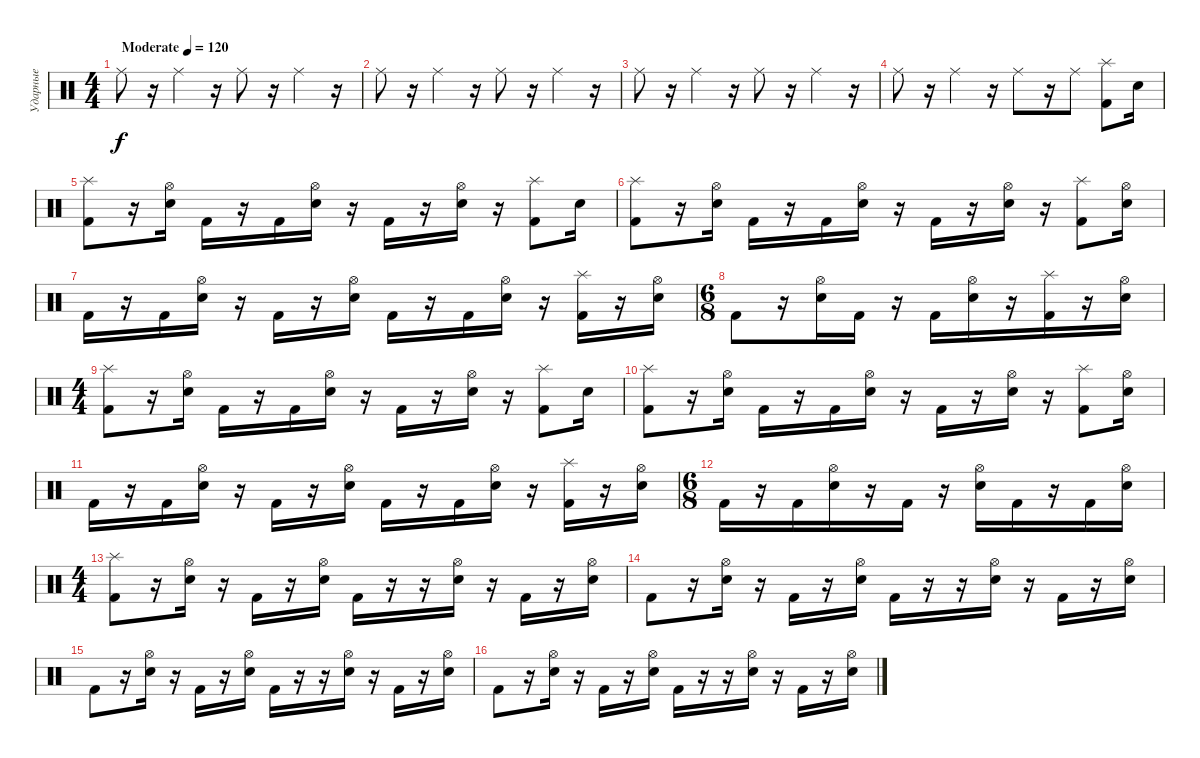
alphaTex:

\track ("Ударные" "Ударные") {instrument percussion}
\staff {score}
\articulation defaults
\ts (4 4)
\tempo (120 "Moderate")
\clef neutral
\ks c "Ride (middle)".8{dy f}
r.16 "Ride (middle)".4 r.16 "Ride (middle)".8 r.16 "Ride (middle)".4 r.16 |
"Ride (middle)".8 r.16 "Ride (middle)".4 r.16 "Ride (middle)".8 r.16 "Ride (middle)".4 r.16 |
"Ride (middle)".8 r.16 "Ride (middle)".4 r.16 "Ride (middle)".8 r.16 "Ride (middle)".4 r.16 |
"Ride (middle)".8 r.16 "Ride (middle)".4 r.16 "Ride (middle)".8 r.16 "Ride (middle)".8 ("Splash (hit)" "Kick (hit) 2").8 "Snare (hit) 2".16 |
("Splash (hit)" "Kick (hit) 2").8 r.16 ("Hi-Hat (open)" "Electric Snare (hit)").16 "Kick (hit) 2".16 r.16 "Kick (hit) 2".16 ("Hi-Hat (open)" "Electric Snare (hit)").16 r.16 "Kick (hit) 2".16 r.16 ("Hi-Hat (open)" "Electric Snare (hit)").16 r.16 ("Splash (hit)" "Kick (hit) 2").8 "Snare (hit) 2".16 |
("Splash (hit)" "Kick (hit) 2").8 r.16 ("Hi-Hat (open)" "Electric Snare (hit)").16 "Kick (hit) 2".16 r.16 "Kick (hit) 2".16 ("Hi-Hat (open)" "Electric Snare (hit)").16 r.16 "Kick (hit) 2".16 r.16 ("Hi-Hat (open)" "Electric Snare (hit)").16 r.16 ("Splash (hit)" "Kick (hit) 2").8 ("Hi-Hat (open)" "Electric Snare (hit)").16 |
"Kick (hit) 2".16 r.16 "Kick (hit) 2".16 ("Hi-Hat (open)" "Electric Snare (hit)").16 r.16 "Kick (hit) 2".16 r.16 ("Hi-Hat (open)" "Electric Snare (hit)").16 "Kick (hit) 2".16 r.16 "Kick (hit) 2".16 ("Hi-Hat (open)" "Electric Snare (hit)").16 r.16 ("Splash (hit)" "Kick (hit) 2").16 r.16 ("Hi-Hat (open)" "Electric Snare (hit)").16 |
\ts (6 8)
"Kick (hit) 2".8 r.16 ("Hi-Hat (open)" "Electric Snare (hit)").16 "Kick (hit) 2".16 r.16 "Kick (hit) 2".16 ("Hi-Hat (open)" "Electric Snare (hit)").16 r.16 ("Splash (hit)" "Kick (hit) 2").16 r.16 ("Hi-Hat (open)" "Electric Snare (hit)").16 |
\ts (4 4)
("Splash (hit)" "Kick (hit) 2").8 r.16 ("Hi-Hat (open)" "Electric Snare (hit)").16 "Kick (hit) 2".16 r.16 "Kick (hit) 2".16 ("Hi-Hat (open)" "Electric Snare (hit)").16 r.16 "Kick (hit) 2".16 r.16 ("Hi-Hat (open)" "Electric Snare (hit)").16 r.16 ("Splash (hit)" "Kick (hit) 2").8 "Snare (hit) 2".16 |
("Splash (hit)" "Kick (hit) 2").8 r.16 ("Hi-Hat (open)" "Electric Snare (hit)").16 "Kick (hit) 2".16 r.16 "Kick (hit) 2".16 ("Hi-Hat (open)" "Electric Snare (hit)").16 r.16 "Kick (hit) 2".16 r.16 ("Hi-Hat (open)" "Electric Snare (hit)").16 r.16 ("Splash (hit)" "Kick (hit) 2").8 ("Hi-Hat (open)" "Electric Snare (hit)").16 |
"Kick (hit) 2".16 r.16 "Kick (hit) 2".16 ("Hi-Hat (open)" "Electric Snare (hit)").16 r.16 "Kick (hit) 2".16 r.16 ("Hi-Hat (open)" "Electric Snare (hit)").16 "Kick (hit) 2".16 r.16 "Kick (hit) 2".16 ("Hi-Hat (open)" "Electric Snare (hit)").16 r.16 ("Splash (hit)" "Kick (hit) 2").16 r.16 ("Hi-Hat (open)" "Electric Snare (hit)").16 |
\ts (6 8)
"Kick (hit) 2".16 r.16 "Kick (hit) 2".16 ("Hi-Hat (open)" "Electric Snare (hit)").16 r.16 "Kick (hit) 2".16 r.16 ("Hi-Hat (open)" "Electric Snare (hit)").16 "Kick (hit) 2".16 r.16 "Kick (hit) 2".16 ("Hi-Hat (open)" "Electric Snare (hit)").16 |
\ts (4 4)
("Splash (hit)" "Kick (hit) 2").8 r.16 ("Hi-Hat (open)" "Electric Snare (hit)").16 r.16 "Kick (hit) 2".16 r.16 ("Hi-Hat (open)" "Electric Snare (hit)").16 "Kick (hit) 2".16 r.16 r.16 ("Hi-Hat (open)" "Electric Snare (hit)").16 r.16 "Kick (hit) 2".16 r.16 ("Hi-Hat (open)" "Electric Snare (hit)").16 |
"Kick (hit) 2".8 r.16 ("Hi-Hat (open)" "Electric Snare (hit)").16 r.16 "Kick (hit) 2".16 r.16 ("Hi-Hat (open)" "Electric Snare (hit)").16 "Kick (hit) 2".16 r.16 r.16 ("Hi-Hat (open)" "Electric Snare (hit)").16 r.16 "Kick (hit) 2".16 r.16 ("Hi-Hat (open)" "Electric Snare (hit)").16 |
"Kick (hit) 2".8 r.16 ("Hi-Hat (open)" "Electric Snare (hit)").16 r.16 "Kick (hit) 2".16 r.16 ("Hi-Hat (open)" "Electric Snare (hit)").16 "Kick (hit) 2".16 r.16 r.16 ("Hi-Hat (open)" "Electric Snare (hit)").16 r.16 "Kick (hit) 2".16 r.16 ("Hi-Hat (open)" "Electric Snare (hit)").16 |
"Kick (hit) 2".8 r.16 ("Hi-Hat (open)" "Electric Snare (hit)").16 r.16 "Kick (hit) 2".16 r.16 ("Hi-Hat (open)" "Electric Snare (hit)").16 "Kick (hit) 2".16 r.16 r.16 ("Hi-Hat (open)" "Electric Snare (hit)").16 r.16 "Kick (hit) 2".16 r.16 ("Hi-Hat (open)" "Electric Snare (hit)").16
